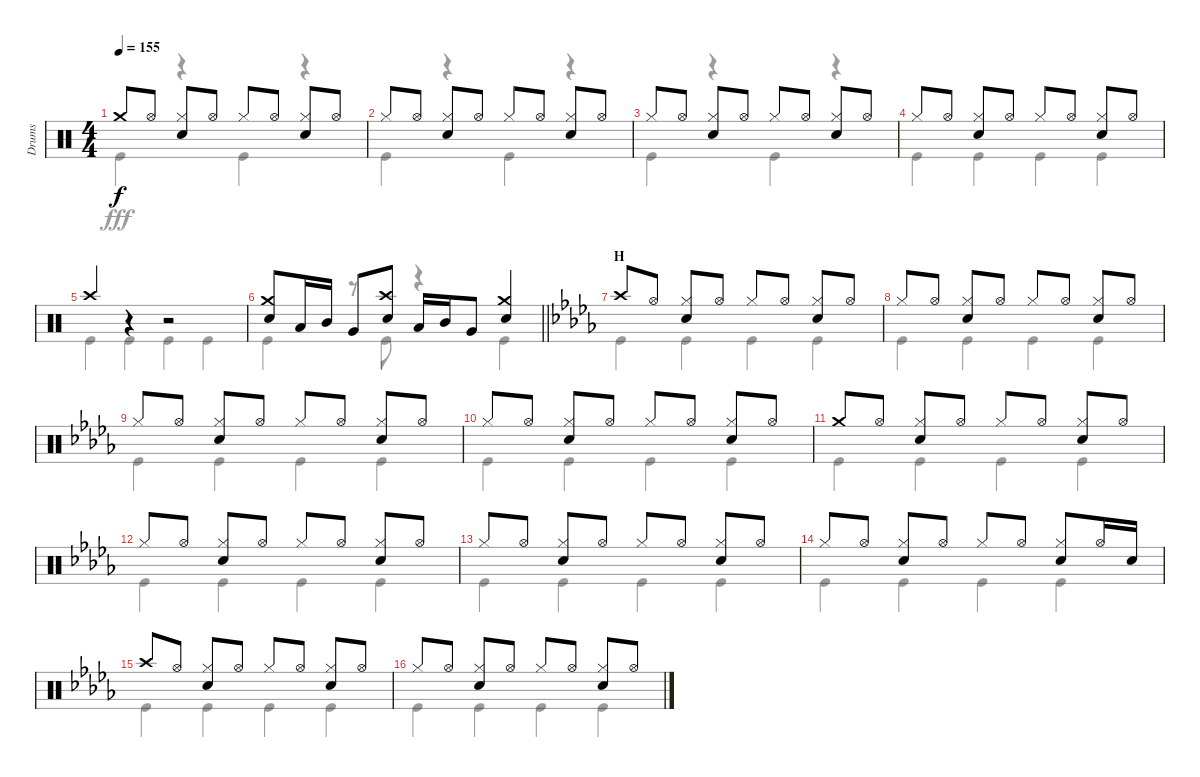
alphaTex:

\track ("Drums" "Drums") {instrument percussion}
\staff {score}
\articulation defaults
\voice
\ts (4 4)
\tempo 155
\clef neutral
\ks c "Crash medium (hit)".8{dy f} "Hi-Hat (open)".8
("Hi-Hat (closed)" "Snare (hit) 2").8 "Hi-Hat (open)".8 "Hi-Hat (closed)".8 "Hi-Hat (open)".8 ("Hi-Hat (closed)" "Snare (hit) 2").8 "Hi-Hat (open)".8 |
"Hi-Hat (closed)".8 "Hi-Hat (open)".8 ("Hi-Hat (closed)" "Snare (hit) 2").8 "Hi-Hat (open)".8 "Hi-Hat (closed)".8 "Hi-Hat (open)".8 ("Hi-Hat (closed)" "Snare (hit) 2").8 "Hi-Hat (open)".8 |
"Hi-Hat (closed)".8 "Hi-Hat (open)".8 ("Hi-Hat (closed)" "Snare (hit) 2").8 "Hi-Hat (open)".8 "Hi-Hat (closed)".8 "Hi-Hat (open)".8 ("Hi-Hat (closed)" "Snare (hit) 2").8 "Hi-Hat (open)".8 |
"Hi-Hat (closed)".8 "Hi-Hat (open)".8 ("Hi-Hat (closed)" "Snare (hit) 2").8 "Hi-Hat (open)".8 "Hi-Hat (closed)".8 "Hi-Hat (open)".8 ("Hi-Hat (closed)" "Snare (hit) 2").8 "Hi-Hat (open)".8 |
"Crash high (hit)".4 r.4 r.2 |
\barLineRight lightlight
("Crash medium (hit)" "Snare (hit) 2").8 "Low Tom (hit)".16 "Mid Tom (hit)".16 "Very Low Tom (hit)".8 ("Crash high (hit)" "Snare (hit) 2").8 "Low Tom (hit)".16 "Mid Tom (hit)".16 "Very Low Tom (hit)".8 ("Crash medium (hit)" "Snare (hit) 2").4 |
\section ("" "H")
\ks db "Crash high (hit)".8 "Hi-Hat (open)".8
("Hi-Hat (closed)" "Snare (hit) 2").8 "Hi-Hat (open)".8 "Hi-Hat (closed)".8 "Hi-Hat (open)".8 ("Hi-Hat (closed)" "Snare (hit) 2").8 "Hi-Hat (open)".8 |
"Hi-Hat (closed)".8 "Hi-Hat (open)".8 ("Hi-Hat (closed)" "Snare (hit) 2").8 "Hi-Hat (open)".8 "Hi-Hat (closed)".8 "Hi-Hat (open)".8 ("Hi-Hat (closed)" "Snare (hit) 2").8 "Hi-Hat (open)".8 |
"Hi-Hat (closed)".8 "Hi-Hat (open)".8 ("Hi-Hat (closed)" "Snare (hit) 2").8 "Hi-Hat (open)".8 "Hi-Hat (closed)".8 "Hi-Hat (open)".8 ("Hi-Hat (closed)" "Snare (hit) 2").8 "Hi-Hat (open)".8 |
"Hi-Hat (closed)".8 "Hi-Hat (open)".8 ("Hi-Hat (closed)" "Snare (hit) 2").8 "Hi-Hat (open)".8 "Hi-Hat (closed)".8 "Hi-Hat (open)".8 ("Hi-Hat (closed)" "Snare (hit) 2").8 "Hi-Hat (open)".8 |
"Crash medium (hit)".8 "Hi-Hat (open)".8 ("Hi-Hat (closed)" "Snare (hit) 2").8 "Hi-Hat (open)".8 "Hi-Hat (closed)".8 "Hi-Hat (open)".8 ("Hi-Hat (closed)" "Snare (hit) 2").8 "Hi-Hat (open)".8 |
"Hi-Hat (closed)".8 "Hi-Hat (open)".8 ("Hi-Hat (closed)" "Snare (hit) 2").8 "Hi-Hat (open)".8 "Hi-Hat (closed)".8 "Hi-Hat (open)".8 ("Hi-Hat (closed)" "Snare (hit) 2").8 "Hi-Hat (open)".8 |
"Hi-Hat (closed)".8 "Hi-Hat (open)".8 ("Hi-Hat (closed)" "Snare (hit) 2").8 "Hi-Hat (open)".8 "Hi-Hat (closed)".8 "Hi-Hat (open)".8 ("Hi-Hat (closed)" "Snare (hit) 2").8 "Hi-Hat (open)".8 |
"Hi-Hat (closed)".8 "Hi-Hat (open)".8 ("Hi-Hat (closed)" "Snare (hit) 2").8 "Hi-Hat (open)".8 "Hi-Hat (closed)".8 "Hi-Hat (open)".8 ("Hi-Hat (closed)" "Snare (hit) 2").8 "Hi-Hat (open)".16 "Snare (hit) 2".16 |
"Crash high (hit)".8 "Hi-Hat (open)".8 ("Hi-Hat (closed)" "Snare (hit) 2").8 "Hi-Hat (open)".8 "Hi-Hat (closed)".8 "Hi-Hat (open)".8 ("Hi-Hat (closed)" "Snare (hit) 2").8 "Hi-Hat (open)".8 |
"Hi-Hat (closed)".8 "Hi-Hat (open)".8 ("Hi-Hat (closed)" "Snare (hit) 2").8 "Hi-Hat (open)".8 "Hi-Hat (closed)".8 "Hi-Hat (open)".8 ("Hi-Hat (closed)" "Snare (hit) 2").8 "Hi-Hat (open)".8
\voice
\clef neutral
\ottava regular
\simile none
\ks c "Kick (hit)".4{dy fff}
r.4 "Kick (hit)".4 r.4 |
"Kick (hit)".4 r.4 "Kick (hit)".4 r.4 |
"Kick (hit)".4 r.4 "Kick (hit)".4 r.4 |
"Kick (hit)".4 "Kick (hit)".4 "Kick (hit)".4 "Kick (hit)".4 |
"Kick (hit)".4 "Kick (hit)".4 "Kick (hit)".4 "Kick (hit)".4 |
\barLineRight lightlight "Kick (hit)".4
r.8 "Kick (hit)".8 r.4 "Kick (hit)".4 |
\ks db "Kick (hit)".4 "Kick (hit)".4 "Kick (hit)".4 "Kick (hit)".4
|
"Kick (hit)".4 "Kick (hit)".4 "Kick (hit)".4 "Kick (hit)".4 |
"Kick (hit)".4 "Kick (hit)".4 "Kick (hit)".4 "Kick (hit)".4 |
"Kick (hit)".4 "Kick (hit)".4 "Kick (hit)".4 "Kick (hit)".4 |
"Kick (hit)".4 "Kick (hit)".4 "Kick (hit)".4 "Kick (hit)".4 |
"Kick (hit)".4 "Kick (hit)".4 "Kick (hit)".4 "Kick (hit)".4 |
"Kick (hit)".4 "Kick (hit)".4 "Kick (hit)".4 "Kick (hit)".4 |
"Kick (hit)".4 "Kick (hit)".4 "Kick (hit)".4 "Kick (hit)".4 |
"Kick (hit)".4 "Kick (hit)".4 "Kick (hit)".4 "Kick (hit)".4 |
"Kick (hit)".4 "Kick (hit)".4 "Kick (hit)".4 "Kick (hit)".4
